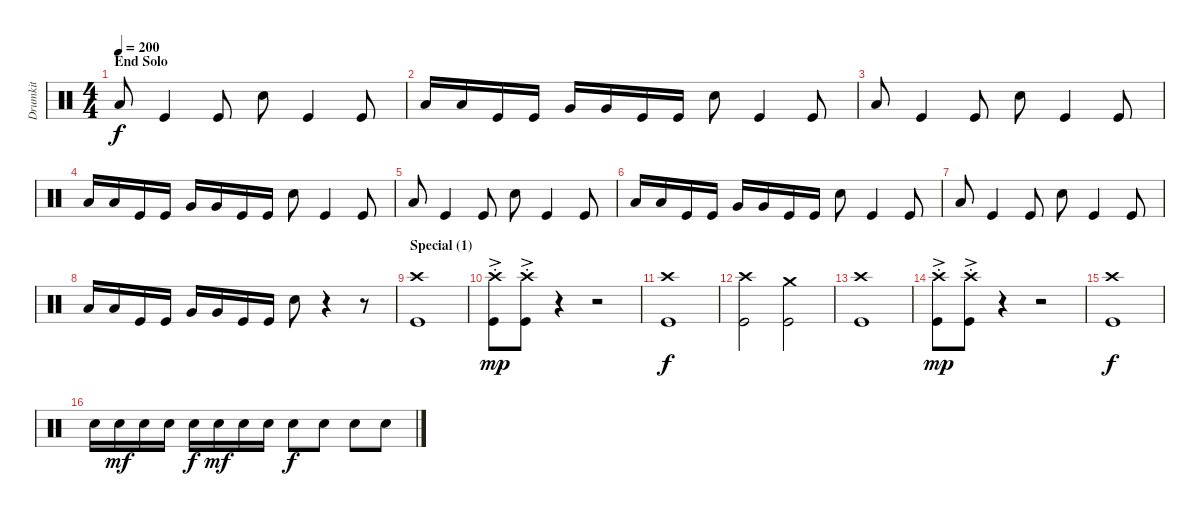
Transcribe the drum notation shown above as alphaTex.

\track ("Drumkit" "Drumkit") {instrument percussion}
\staff {score}
\articulation defaults
\ts (4 4)
\section ("" "End Solo")
\tempo 200
\clef neutral
\ks c "Low Floor Tom (hit)".8{dy f} "Kick (hit)".4 "Kick (hit)".8 "Snare (hit) 2".8 "Kick (hit)".4 "Kick (hit)".8
|
"Low Tom (hit)".16 "Low Tom (hit)".16 "Kick (hit)".16 "Kick (hit)".16 "Very Low Tom (hit)".16 "Very Low Tom (hit)".16 "Kick (hit)".16 "Kick (hit)".16 "Snare (hit) 2".8 "Kick (hit)".4 "Kick (hit)".8 |
"Low Floor Tom (hit)".8 "Kick (hit)".4 "Kick (hit)".8 "Snare (hit) 2".8 "Kick (hit)".4 "Kick (hit)".8 |
"Low Tom (hit)".16 "Low Tom (hit)".16 "Kick (hit)".16 "Kick (hit)".16 "Very Low Tom (hit)".16 "Very Low Tom (hit)".16 "Kick (hit)".16 "Kick (hit)".16 "Snare (hit) 2".8 "Kick (hit)".4 "Kick (hit)".8 |
"Low Floor Tom (hit)".8 "Kick (hit)".4 "Kick (hit)".8 "Snare (hit) 2".8 "Kick (hit)".4 "Kick (hit)".8 |
"Low Tom (hit)".16 "Low Tom (hit)".16 "Kick (hit)".16 "Kick (hit)".16 "Very Low Tom (hit)".16 "Very Low Tom (hit)".16 "Kick (hit)".16 "Kick (hit)".16 "Snare (hit) 2".8 "Kick (hit)".4 "Kick (hit)".8 |
"Low Floor Tom (hit)".8 "Kick (hit)".4 "Kick (hit)".8 "Snare (hit) 2".8 "Kick (hit)".4 "Kick (hit)".8 |
"Low Tom (hit)".16 "Low Tom (hit)".16 "Kick (hit)".16 "Kick (hit)".16 "Very Low Tom (hit)".16 "Very Low Tom (hit)".16 "Kick (hit)".16 "Kick (hit)".16 "Snare (hit) 2".8 r.4 r.8 |
\section ("" "Special (1)")
("Crash high (hit)" "Kick (hit)").1 |
("Kick (hit)"{ac st} "Crash high (hit)"{ac st}).8{dy mp} ("Kick (hit)"{ac st} "Crash high (hit)"{ac st}).8 r.4 r.2 |
("Kick (hit)" "Crash high (hit)").1{dy f} |
("Crash high (hit)" "Kick (hit)").2 ("Crash medium (hit)" "Kick (hit)").2 |
("Crash high (hit)" "Kick (hit)").1 |
("Kick (hit)"{ac st} "Crash high (hit)"{ac st}).8{dy mp} ("Kick (hit)"{ac st} "Crash high (hit)"{ac st}).8 r.4 r.2 |
("Kick (hit)" "Crash high (hit)").1{dy f} |
"Snare (hit) 2".16 "Snare (hit) 2".16{dy mf} "Snare (hit) 2".16 "Snare (hit) 2".16 "Snare (hit) 2".16{dy f} "Snare (hit) 2".16{dy mf} "Snare (hit) 2".16 "Snare (hit) 2".16 "Snare (hit) 2".8{dy f} "Snare (hit) 2".8 "Snare (hit) 2".8 "Snare (hit) 2".8
